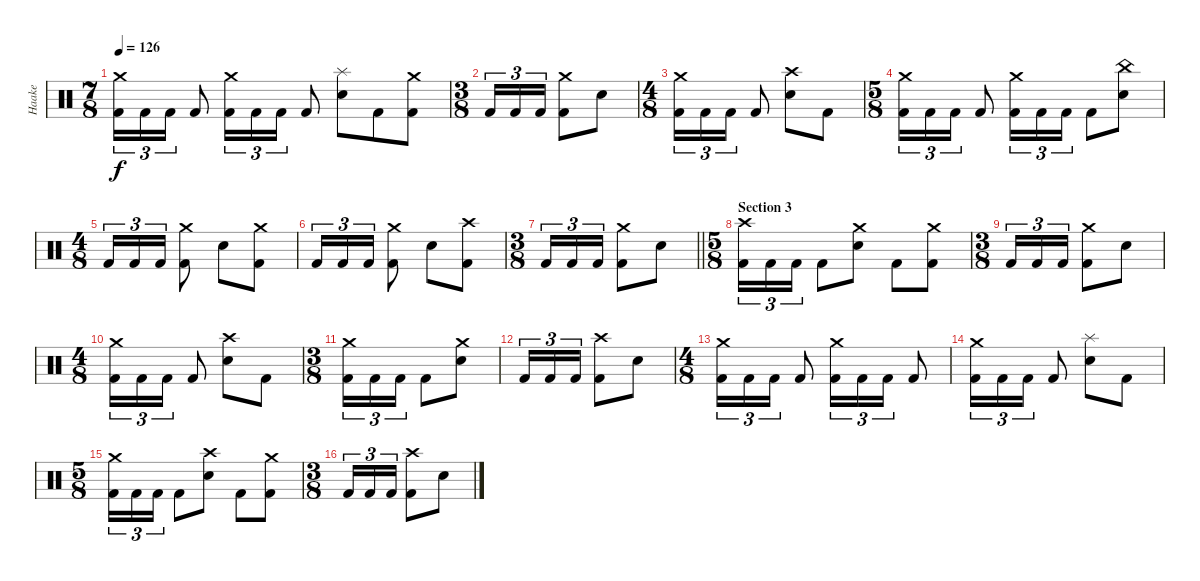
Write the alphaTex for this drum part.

\track ("Haake" "Haake") {instrument percussion}
\staff {score}
\articulation defaults
\ts (7 8)
\tempo 126
\clef neutral
\ks c
("Crash medium (hit)" "Kick (hit) 2").16{tu (3 2) dy f} "Kick (hit) 2".16{tu (3 2)} "Kick (hit) 2".16{tu (3 2)} "Kick (hit) 2".8 ("Crash medium (hit)" "Kick (hit) 2").16{tu (3 2)} "Kick (hit) 2".16{tu (3 2)} "Kick (hit) 2".16{tu (3 2)} "Kick (hit) 2".8 ("Splash (hit)" "Electric Snare (hit)").8 "Kick (hit) 2".8 ("Crash medium (hit)" "Kick (hit) 2").8 |
\ts (3 8)
"Kick (hit) 2".16{tu (3 2)} "Kick (hit) 2".16{tu (3 2)} "Kick (hit) 2".16{tu (3 2)} ("Crash medium (hit)" "Kick (hit) 2").8 "Electric Snare (hit)".8 |
\ts (4 8)
("Crash medium (hit)" "Kick (hit) 2").16{tu (3 2)} "Kick (hit) 2".16{tu (3 2)} "Kick (hit) 2".16{tu (3 2)} "Kick (hit) 2".8 ("Crash high (hit)" "Electric Snare (hit)").8 "Kick (hit) 2".8 |
\ts (5 8)
("Crash medium (hit)" "Kick (hit) 2").16{tu (3 2)} "Kick (hit) 2".16{tu (3 2)} "Kick (hit) 2".16{tu (3 2)} "Kick (hit) 2".8 ("Crash medium (hit)" "Kick (hit) 2").16{tu (3 2)} "Kick (hit) 2".16{tu (3 2)} "Kick (hit) 2".16{tu (3 2)} "Kick (hit) 2".8 ("China (hit)" "Electric Snare (hit)").8 |
\ts (4 8)
"Kick (hit) 2".16{tu (3 2)} "Kick (hit) 2".16{tu (3 2)} "Kick (hit) 2".16{tu (3 2)} ("Crash medium (hit)" "Kick (hit) 2").8 "Electric Snare (hit)".8 ("Crash medium (hit)" "Kick (hit) 2").8 |
"Kick (hit) 2".16{tu (3 2)} "Kick (hit) 2".16{tu (3 2)} "Kick (hit) 2".16{tu (3 2)} ("Crash medium (hit)" "Kick (hit) 2").8 "Electric Snare (hit)".8 ("Crash high (hit)" "Kick (hit) 2").8 |
\ts (3 8)
\barLineRight lightlight "Kick (hit) 2".16{tu (3 2)} "Kick (hit) 2".16{tu (3 2)} "Kick (hit) 2".16{tu (3 2)}
("Crash medium (hit)" "Kick (hit) 2").8 "Electric Snare (hit)".8 |
\ts (5 8)
\section ("" "Section 3")
("Crash high (hit)" "Kick (hit) 2").16{tu (3 2)} "Kick (hit) 2".16{tu (3 2)} "Kick (hit) 2".16{tu (3 2)} "Kick (hit) 2".8 ("Crash medium (hit)" "Electric Snare (hit)").8 "Kick (hit) 2".8 ("Crash medium (hit)" "Kick (hit) 2").8 |
\ts (3 8)
"Kick (hit) 2".16{tu (3 2)} "Kick (hit) 2".16{tu (3 2)} "Kick (hit) 2".16{tu (3 2)} ("Crash medium (hit)" "Kick (hit) 2").8 "Electric Snare (hit)".8 |
\ts (4 8)
("Crash medium (hit)" "Kick (hit) 2").16{tu (3 2)} "Kick (hit) 2".16{tu (3 2)} "Kick (hit) 2".16{tu (3 2)} "Kick (hit) 2".8 ("Crash high (hit)" "Electric Snare (hit)").8 "Kick (hit) 2".8 |
\ts (3 8)
("Crash medium (hit)" "Kick (hit) 2").16{tu (3 2)} "Kick (hit) 2".16{tu (3 2)} "Kick (hit) 2".16{tu (3 2)} "Kick (hit) 2".8 ("Crash medium (hit)" "Electric Snare (hit)").8 |
"Kick (hit) 2".16{tu (3 2)} "Kick (hit) 2".16{tu (3 2)} "Kick (hit) 2".16{tu (3 2)} ("Crash high (hit)" "Kick (hit) 2").8 "Electric Snare (hit)".8 |
\ts (4 8)
("Crash medium (hit)" "Kick (hit) 2").16{tu (3 2)} "Kick (hit) 2".16{tu (3 2)} "Kick (hit) 2".16{tu (3 2)} "Kick (hit) 2".8 ("Crash medium (hit)" "Kick (hit) 2").16{tu (3 2)} "Kick (hit) 2".16{tu (3 2)} "Kick (hit) 2".16{tu (3 2)} "Kick (hit) 2".8 |
("Crash medium (hit)" "Kick (hit) 2").16{tu (3 2)} "Kick (hit) 2".16{tu (3 2)} "Kick (hit) 2".16{tu (3 2)} "Kick (hit) 2".8 ("Splash (hit)" "Electric Snare (hit)").8 "Kick (hit) 2".8 |
\ts (5 8)
("Crash medium (hit)" "Kick (hit) 2").16{tu (3 2)} "Kick (hit) 2".16{tu (3 2)} "Kick (hit) 2".16{tu (3 2)} "Kick (hit) 2".8 ("Crash high (hit)" "Electric Snare (hit)").8 "Kick (hit) 2".8 ("Crash medium (hit)" "Kick (hit) 2").8 |
\ts (3 8)
"Kick (hit) 2".16{tu (3 2)} "Kick (hit) 2".16{tu (3 2)} "Kick (hit) 2".16{tu (3 2)} ("Crash high (hit)" "Kick (hit) 2").8 "Electric Snare (hit)".8
